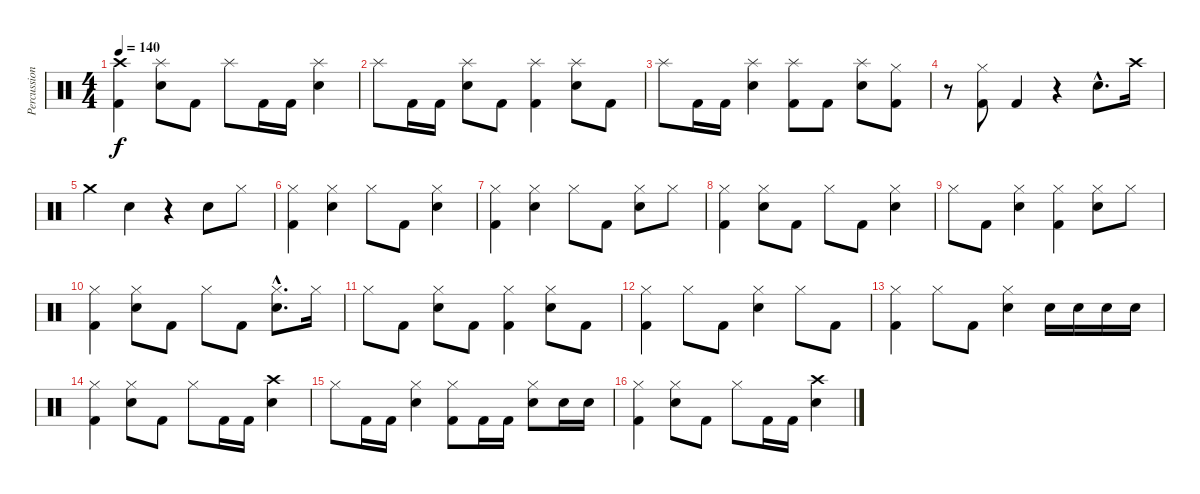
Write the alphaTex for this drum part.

\track ("Percussion" "Percussion") {instrument percussion}
\staff {score}
\articulation defaults
\ts (4 4)
\tempo 140
\clef neutral
\ks c
("Kick (hit) 2" "Crash high (hit)").4{dy f} ("Snare (hit) 2" "Splash (hit)").8 "Kick (hit) 2".8 "Splash (hit)".8 "Kick (hit) 2".16 "Kick (hit) 2".16 ("Snare (hit) 2" "Splash (hit)").4 |
"Splash (hit)".8 "Kick (hit) 2".16 "Kick (hit) 2".16 ("Snare (hit) 2" "Splash (hit)").8 "Kick (hit) 2".8 ("Kick (hit) 2" "Splash (hit)").4 ("Snare (hit) 2" "Splash (hit)").8 "Kick (hit) 2".8 |
"Splash (hit)".8 "Kick (hit) 2".16 "Kick (hit) 2".16 ("Snare (hit) 2" "Splash (hit)").4 ("Kick (hit) 2" "Splash (hit)").8 "Kick (hit) 2".8 ("Snare (hit) 2" "Splash (hit)").8 ("Kick (hit) 2" "Hi-Hat (closed)").8 |
r.8 ("Kick (hit) 2" "Hi-Hat (closed)").8 "Kick (hit) 2".4 r.4 "Snare (hit) 2"{hac}.8{d} "Crash high (hit)".16 |
"Crash medium (hit)".4 "Snare (hit) 2".4 r.4 "Snare (hit) 2".8 "Hi-Hat (closed)".8 |
("Kick (hit) 2" "Hi-Hat (closed)").4 ("Snare (hit) 2" "Hi-Hat (closed)").4 "Hi-Hat (closed)".8 "Kick (hit) 2".8 ("Snare (hit) 2" "Hi-Hat (closed)").4 |
("Kick (hit) 2" "Hi-Hat (closed)").4 ("Snare (hit) 2" "Hi-Hat (closed)").4 "Hi-Hat (closed)".8 "Kick (hit) 2".8 ("Snare (hit) 2" "Hi-Hat (closed)").8 "Hi-Hat (closed)".8 |
("Kick (hit) 2" "Hi-Hat (closed)").4 ("Snare (hit) 2" "Hi-Hat (closed)").8 "Kick (hit) 2".8 "Hi-Hat (closed)".8 "Kick (hit) 2".8 ("Snare (hit) 2" "Hi-Hat (closed)").4 |
"Hi-Hat (closed)".8 "Kick (hit) 2".8 ("Snare (hit) 2" "Hi-Hat (closed)").4 ("Kick (hit) 2" "Hi-Hat (closed)").4 ("Snare (hit) 2" "Hi-Hat (closed)").8 "Hi-Hat (closed)".8 |
("Kick (hit) 2" "Hi-Hat (closed)").4 ("Snare (hit) 2" "Hi-Hat (closed)").8 "Kick (hit) 2".8 "Hi-Hat (closed)".8 "Kick (hit) 2".8 ("Snare (hit) 2"{hac} "Hi-Hat (closed)"{hac}).8{d} "Hi-Hat (closed)".16 |
"Hi-Hat (closed)".8 "Kick (hit) 2".8 ("Snare (hit) 2" "Hi-Hat (closed)").8 "Kick (hit) 2".8 ("Kick (hit) 2" "Hi-Hat (closed)").4 ("Snare (hit) 2" "Hi-Hat (closed)").8 "Kick (hit) 2".8 |
("Kick (hit) 2" "Hi-Hat (closed)").4 "Hi-Hat (closed)".8 "Kick (hit) 2".8 ("Snare (hit) 2" "Hi-Hat (closed)").4 "Hi-Hat (closed)".8 "Kick (hit) 2".8 |
("Kick (hit) 2" "Hi-Hat (closed)").4 "Hi-Hat (closed)".8 "Kick (hit) 2".8 ("Snare (hit) 2" "Hi-Hat (closed)").4 "Snare (hit) 2".16 "Snare (hit) 2".16 "Snare (hit) 2".16 "Snare (hit) 2".16 |
("Kick (hit) 2" "Hi-Hat (closed)").4 ("Snare (hit) 2" "Hi-Hat (closed)").8 "Kick (hit) 2".8 "Hi-Hat (closed)".8 "Kick (hit) 2".16 "Kick (hit) 2".16 ("Snare (hit) 2" "Crash high (hit)").4 |
"Hi-Hat (closed)".8 "Kick (hit) 2".16 "Kick (hit) 2".16 ("Snare (hit) 2" "Hi-Hat (closed)").4 ("Kick (hit) 2" "Hi-Hat (closed)").8 "Kick (hit) 2".16 "Kick (hit) 2".16 ("Snare (hit) 2" "Hi-Hat (closed)").8 "Snare (hit) 2".16 "Snare (hit) 2".16 |
("Kick (hit) 2" "Hi-Hat (closed)").4 ("Snare (hit) 2" "Hi-Hat (closed)").8 "Kick (hit) 2".8 "Hi-Hat (closed)".8 "Kick (hit) 2".16 "Kick (hit) 2".16 ("Snare (hit) 2" "Crash high (hit)").4
